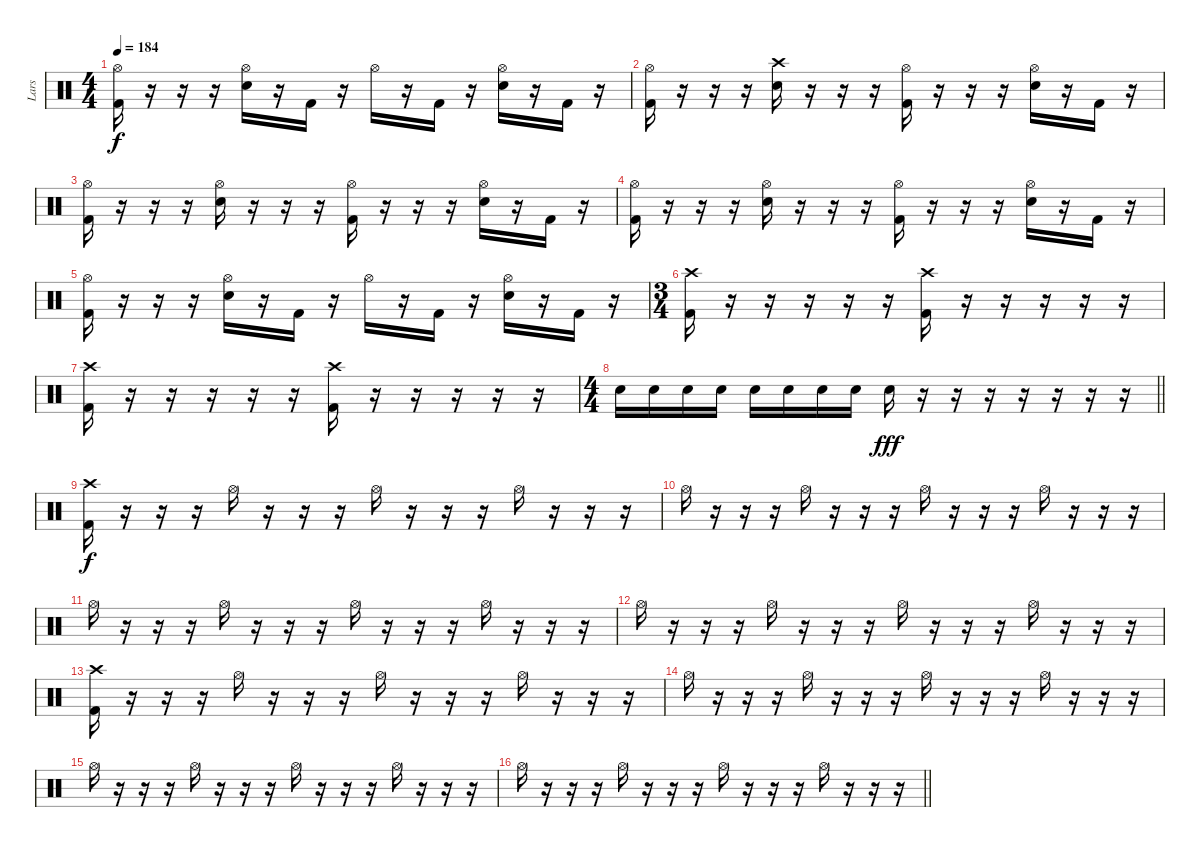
\track ("Lars" "Lars") {instrument percussion}
\staff {score}
\articulation defaults
\ts (4 4)
\tempo 184
\clef neutral
\ks c
("Hi-Hat (open)" "Kick (hit) 2").16{dy f} r.16 r.16 r.16 ("Electric Snare (hit)" "Hi-Hat (open)").16 r.16 "Kick (hit) 2".16 r.16 "Hi-Hat (open)".16 r.16 "Kick (hit) 2".16 r.16 ("Electric Snare (hit)" "Hi-Hat (open)").16 r.16 "Kick (hit) 2".16 r.16 |
("Hi-Hat (open)" "Kick (hit) 2").16 r.16 r.16 r.16 ("Crash high (hit)" "Electric Snare (hit)").16 r.16 r.16 r.16 ("Hi-Hat (open)" "Kick (hit) 2").16 r.16 r.16 r.16 ("Electric Snare (hit)" "Hi-Hat (open)").16 r.16 "Kick (hit) 2".16 r.16 |
("Hi-Hat (open)" "Kick (hit) 2").16 r.16 r.16 r.16 ("Electric Snare (hit)" "Hi-Hat (open)").16 r.16 r.16 r.16 ("Hi-Hat (open)" "Kick (hit) 2").16 r.16 r.16 r.16 ("Electric Snare (hit)" "Hi-Hat (open)").16 r.16 "Kick (hit) 2".16 r.16 |
("Hi-Hat (open)" "Kick (hit) 2").16 r.16 r.16 r.16 ("Electric Snare (hit)" "Hi-Hat (open)").16 r.16 r.16 r.16 ("Hi-Hat (open)" "Kick (hit) 2").16 r.16 r.16 r.16 ("Electric Snare (hit)" "Hi-Hat (open)").16 r.16 "Kick (hit) 2".16 r.16 |
("Hi-Hat (open)" "Kick (hit) 2").16 r.16 r.16 r.16 ("Electric Snare (hit)" "Hi-Hat (open)").16 r.16 "Kick (hit) 2".16 r.16 "Hi-Hat (open)".16 r.16 "Kick (hit) 2".16 r.16 ("Electric Snare (hit)" "Hi-Hat (open)").16 r.16 "Kick (hit) 2".16 r.16 |
\ts (3 4)
("Crash high (hit)" "Kick (hit) 2").16 r.16 r.16 r.16 r.16 r.16 ("Crash high (hit)" "Kick (hit) 2").16 r.16 r.16 r.16 r.16 r.16 |
("Crash high (hit)" "Kick (hit) 2").16 r.16 r.16 r.16 r.16 r.16 ("Crash high (hit)" "Kick (hit) 2").16 r.16 r.16 r.16 r.16 r.16 |
\ts (4 4)
\barLineRight lightlight "Electric Snare (hit)".16 "Electric Snare (hit)".16 "Electric Snare (hit)".16 "Electric Snare (hit)".16 "Electric Snare (hit)".16 "Electric Snare (hit)".16 "Electric Snare (hit)".16 "Electric Snare (hit)".16 "Electric Snare (hit)".16{dy fff}
r.16 r.16 r.16 r.16 r.16 r.16 r.16 |
("Crash high (hit)" "Kick (hit) 2").16{dy f} r.16 r.16 r.16 "Hi-Hat (open)".16 r.16 r.16 r.16 "Hi-Hat (open)".16 r.16 r.16 r.16 "Hi-Hat (open)".16 r.16 r.16 r.16 |
"Hi-Hat (open)".16 r.16 r.16 r.16 "Hi-Hat (open)".16 r.16 r.16 r.16 "Hi-Hat (open)".16 r.16 r.16 r.16 "Hi-Hat (open)".16 r.16 r.16 r.16 |
"Hi-Hat (open)".16 r.16 r.16 r.16 "Hi-Hat (open)".16 r.16 r.16 r.16 "Hi-Hat (open)".16 r.16 r.16 r.16 "Hi-Hat (open)".16 r.16 r.16 r.16 |
"Hi-Hat (open)".16 r.16 r.16 r.16 "Hi-Hat (open)".16 r.16 r.16 r.16 "Hi-Hat (open)".16 r.16 r.16 r.16 "Hi-Hat (open)".16 r.16 r.16 r.16 |
("Crash high (hit)" "Kick (hit) 2").16 r.16 r.16 r.16 "Hi-Hat (open)".16 r.16 r.16 r.16 "Hi-Hat (open)".16 r.16 r.16 r.16 "Hi-Hat (open)".16 r.16 r.16 r.16 |
"Hi-Hat (open)".16 r.16 r.16 r.16 "Hi-Hat (open)".16 r.16 r.16 r.16 "Hi-Hat (open)".16 r.16 r.16 r.16 "Hi-Hat (open)".16 r.16 r.16 r.16 |
"Hi-Hat (open)".16 r.16 r.16 r.16 "Hi-Hat (open)".16 r.16 r.16 r.16 "Hi-Hat (open)".16 r.16 r.16 r.16 "Hi-Hat (open)".16 r.16 r.16 r.16 |
\barLineRight lightlight "Hi-Hat (open)".16
r.16 r.16 r.16 "Hi-Hat (open)".16 r.16 r.16 r.16 "Hi-Hat (open)".16 r.16 r.16 r.16 "Hi-Hat (open)".16 r.16 r.16 r.16
